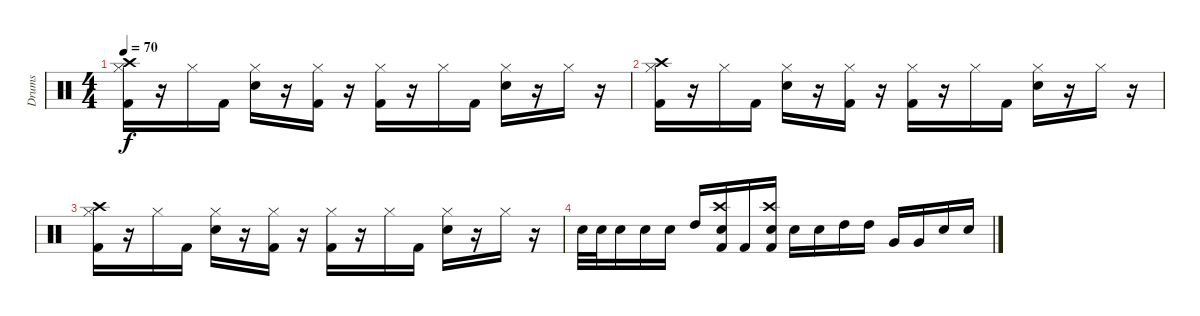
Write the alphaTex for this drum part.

\track ("Drums" "Drums") {instrument percussion}
\staff {score}
\articulation defaults
\ts (4 4)
\tempo 70
\clef neutral
\ks c
("Hi-Hat (closed)" "Kick (hit) 2" "Crash high (hit)").16{dy f} r.16 "Hi-Hat (closed)".16 "Kick (hit) 2".16 ("Hi-Hat (closed)" "Snare (hit) 2").16 r.16 ("Hi-Hat (closed)" "Kick (hit) 2").16 r.16 ("Hi-Hat (closed)" "Kick (hit) 2").16{volume 10} r.16 "Hi-Hat (closed)".16 "Kick (hit) 2".16 ("Hi-Hat (closed)" "Snare (hit) 2").16 r.16 "Hi-Hat (closed)".16 r.16 |
("Hi-Hat (closed)" "Kick (hit) 2" "Crash high (hit)").16{volume 8} r.16 "Hi-Hat (closed)".16 "Kick (hit) 2".16 ("Hi-Hat (closed)" "Snare (hit) 2").16 r.16 ("Hi-Hat (closed)" "Kick (hit) 2").16 r.16 ("Hi-Hat (closed)" "Kick (hit) 2").16{volume 6} r.16 "Hi-Hat (closed)".16 "Kick (hit) 2".16 ("Hi-Hat (closed)" "Snare (hit) 2").16 r.16 "Hi-Hat (closed)".16 r.16 |
("Hi-Hat (closed)" "Kick (hit) 2" "Crash high (hit)").16{volume 4} r.16 "Hi-Hat (closed)".16 "Kick (hit) 2".16 ("Hi-Hat (closed)" "Snare (hit) 2").16 r.16 ("Hi-Hat (closed)" "Kick (hit) 2").16 r.16 ("Hi-Hat (closed)" "Kick (hit) 2").16 r.16 "Hi-Hat (closed)".16 "Kick (hit) 2".16 ("Hi-Hat (closed)" "Snare (hit) 2").16 r.16 "Hi-Hat (closed)".16 r.16 |
"Snare (hit) 2".32{volume 3} "Snare (hit) 2".32 "Snare (hit) 2".16 "Snare (hit) 2".16 "Snare (hit) 2".16 "High Tom (hit)".16{volume 2} ("Snare (hit) 2" "Crash high (hit)" "Kick (hit) 2").16 "Kick (hit) 2".16 ("Kick (hit) 2" "Crash high (hit)" "Snare (hit) 2").16 "Snare (hit) 2".16{volume 1} "Snare (hit) 2".16 "High Tom (hit)".16 "High Tom (hit)".16 "Very Low Tom (hit)".16{volume 0} "Very Low Tom (hit)".16 "Snare (hit) 2".16 "Snare (hit) 2".16
